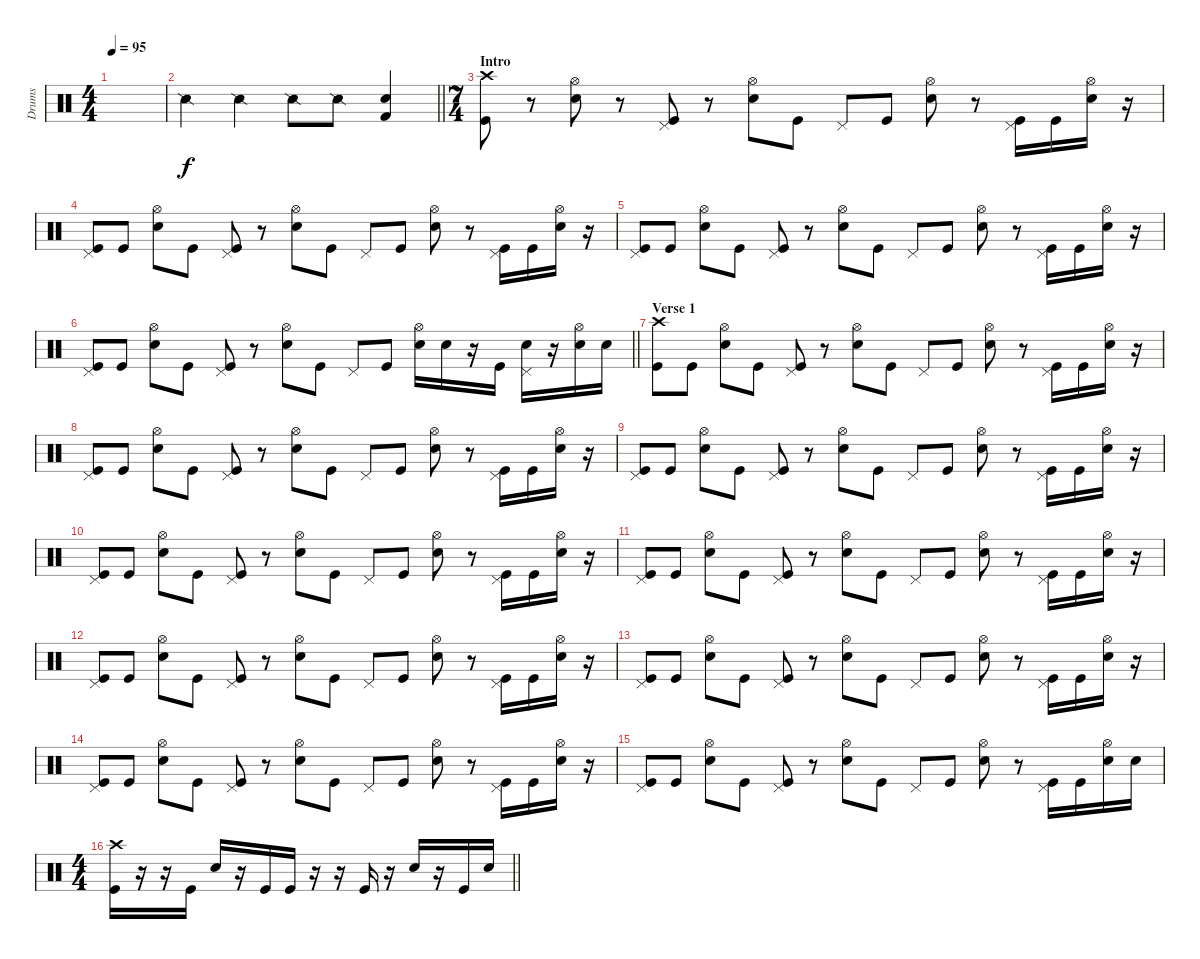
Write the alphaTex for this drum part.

\track ("Drums" "Drums") {instrument percussion}
\staff {score}
\articulation defaults
\ts (4 4)
\tempo 95
\clef neutral
\ks c
|
\barLineRight lightlight "Snare (side stick) 2".4 "Snare (side stick) 2".4 "Snare (side stick) 2".8 "Snare (side stick) 2".8
("Electric Snare (hit)" "Kick (hit) 2").4 |
\ts (7 4)
\section ("" "Intro")
("Crash high (hit)" "Kick (hit)").8 r.8 ("Hi-Hat (open)" "Electric Snare (hit)").8 r.8 ("Pedal Hi-Hat (hit)" "Kick (hit)").8 r.8 ("Hi-Hat (open)" "Electric Snare (hit)").8 "Kick (hit)".8 "Pedal Hi-Hat (hit)".8 "Kick (hit)".8 ("Hi-Hat (open)" "Electric Snare (hit)").8 r.8 ("Pedal Hi-Hat (hit)" "Kick (hit)").16 "Kick (hit)".16 ("Hi-Hat (open)" "Electric Snare (hit)").16 r.16 |
("Pedal Hi-Hat (hit)" "Kick (hit)").8 "Kick (hit)".8 ("Hi-Hat (open)" "Electric Snare (hit)").8 "Kick (hit)".8 ("Pedal Hi-Hat (hit)" "Kick (hit)").8 r.8 ("Hi-Hat (open)" "Electric Snare (hit)").8 "Kick (hit)".8 "Pedal Hi-Hat (hit)".8 "Kick (hit)".8 ("Hi-Hat (open)" "Electric Snare (hit)").8 r.8 ("Pedal Hi-Hat (hit)" "Kick (hit)").16 "Kick (hit)".16 ("Hi-Hat (open)" "Electric Snare (hit)").16 r.16 |
("Pedal Hi-Hat (hit)" "Kick (hit)").8 "Kick (hit)".8 ("Hi-Hat (open)" "Electric Snare (hit)").8 "Kick (hit)".8 ("Pedal Hi-Hat (hit)" "Kick (hit)").8 r.8 ("Hi-Hat (open)" "Electric Snare (hit)").8 "Kick (hit)".8 "Pedal Hi-Hat (hit)".8 "Kick (hit)".8 ("Hi-Hat (open)" "Electric Snare (hit)").8 r.8 ("Pedal Hi-Hat (hit)" "Kick (hit)").16 "Kick (hit)".16 ("Hi-Hat (open)" "Electric Snare (hit)").16 r.16 |
\barLineRight lightlight
("Pedal Hi-Hat (hit)" "Kick (hit)").8 "Kick (hit)".8 ("Hi-Hat (open)" "Electric Snare (hit)").8 "Kick (hit)".8 ("Pedal Hi-Hat (hit)" "Kick (hit)").8 r.8 ("Hi-Hat (open)" "Electric Snare (hit)").8 "Kick (hit)".8 "Pedal Hi-Hat (hit)".8 "Kick (hit)".8 ("Hi-Hat (open)" "Electric Snare (hit)").16 "Electric Snare (hit)".16 r.16 "Kick (hit)".16 ("Pedal Hi-Hat (hit)" "Electric Snare (hit)").16 r.16 ("Hi-Hat (open)" "Electric Snare (hit)").16 "Electric Snare (hit)".16 |
\section ("" "Verse 1")
("Crash high (hit)" "Kick (hit)").8 "Kick (hit)".8 ("Hi-Hat (open)" "Electric Snare (hit)").8 "Kick (hit)".8 ("Pedal Hi-Hat (hit)" "Kick (hit)").8 r.8 ("Hi-Hat (open)" "Electric Snare (hit)").8 "Kick (hit)".8 "Pedal Hi-Hat (hit)".8 "Kick (hit)".8 ("Hi-Hat (open)" "Electric Snare (hit)").8 r.8 ("Pedal Hi-Hat (hit)" "Kick (hit)").16 "Kick (hit)".16 ("Hi-Hat (open)" "Electric Snare (hit)").16 r.16 |
("Pedal Hi-Hat (hit)" "Kick (hit)").8 "Kick (hit)".8 ("Hi-Hat (open)" "Electric Snare (hit)").8 "Kick (hit)".8 ("Pedal Hi-Hat (hit)" "Kick (hit)").8 r.8 ("Hi-Hat (open)" "Electric Snare (hit)").8 "Kick (hit)".8 "Pedal Hi-Hat (hit)".8 "Kick (hit)".8 ("Hi-Hat (open)" "Electric Snare (hit)").8 r.8 ("Pedal Hi-Hat (hit)" "Kick (hit)").16 "Kick (hit)".16 ("Hi-Hat (open)" "Electric Snare (hit)").16 r.16 |
("Pedal Hi-Hat (hit)" "Kick (hit)").8 "Kick (hit)".8 ("Hi-Hat (open)" "Electric Snare (hit)").8 "Kick (hit)".8 ("Pedal Hi-Hat (hit)" "Kick (hit)").8 r.8 ("Hi-Hat (open)" "Electric Snare (hit)").8 "Kick (hit)".8 "Pedal Hi-Hat (hit)".8 "Kick (hit)".8 ("Hi-Hat (open)" "Electric Snare (hit)").8 r.8 ("Pedal Hi-Hat (hit)" "Kick (hit)").16 "Kick (hit)".16 ("Hi-Hat (open)" "Electric Snare (hit)").16 r.16 |
("Pedal Hi-Hat (hit)" "Kick (hit)").8 "Kick (hit)".8 ("Hi-Hat (open)" "Electric Snare (hit)").8 "Kick (hit)".8 ("Pedal Hi-Hat (hit)" "Kick (hit)").8 r.8 ("Hi-Hat (open)" "Electric Snare (hit)").8 "Kick (hit)".8 "Pedal Hi-Hat (hit)".8 "Kick (hit)".8 ("Hi-Hat (open)" "Electric Snare (hit)").8 r.8 ("Pedal Hi-Hat (hit)" "Kick (hit)").16 "Kick (hit)".16 ("Hi-Hat (open)" "Electric Snare (hit)").16 r.16 |
("Pedal Hi-Hat (hit)" "Kick (hit)").8 "Kick (hit)".8 ("Hi-Hat (open)" "Electric Snare (hit)").8 "Kick (hit)".8 ("Pedal Hi-Hat (hit)" "Kick (hit)").8 r.8 ("Hi-Hat (open)" "Electric Snare (hit)").8 "Kick (hit)".8 "Pedal Hi-Hat (hit)".8 "Kick (hit)".8 ("Hi-Hat (open)" "Electric Snare (hit)").8 r.8 ("Pedal Hi-Hat (hit)" "Kick (hit)").16 "Kick (hit)".16 ("Hi-Hat (open)" "Electric Snare (hit)").16 r.16 |
("Pedal Hi-Hat (hit)" "Kick (hit)").8 "Kick (hit)".8 ("Hi-Hat (open)" "Electric Snare (hit)").8 "Kick (hit)".8 ("Pedal Hi-Hat (hit)" "Kick (hit)").8 r.8 ("Hi-Hat (open)" "Electric Snare (hit)").8 "Kick (hit)".8 "Pedal Hi-Hat (hit)".8 "Kick (hit)".8 ("Hi-Hat (open)" "Electric Snare (hit)").8 r.8 ("Pedal Hi-Hat (hit)" "Kick (hit)").16 "Kick (hit)".16 ("Hi-Hat (open)" "Electric Snare (hit)").16 r.16 |
("Pedal Hi-Hat (hit)" "Kick (hit)").8 "Kick (hit)".8 ("Hi-Hat (open)" "Electric Snare (hit)").8 "Kick (hit)".8 ("Pedal Hi-Hat (hit)" "Kick (hit)").8 r.8 ("Hi-Hat (open)" "Electric Snare (hit)").8 "Kick (hit)".8 "Pedal Hi-Hat (hit)".8 "Kick (hit)".8 ("Hi-Hat (open)" "Electric Snare (hit)").8 r.8 ("Pedal Hi-Hat (hit)" "Kick (hit)").16 "Kick (hit)".16 ("Hi-Hat (open)" "Electric Snare (hit)").16 r.16 |
("Pedal Hi-Hat (hit)" "Kick (hit)").8 "Kick (hit)".8 ("Hi-Hat (open)" "Electric Snare (hit)").8 "Kick (hit)".8 ("Pedal Hi-Hat (hit)" "Kick (hit)").8 r.8 ("Hi-Hat (open)" "Electric Snare (hit)").8 "Kick (hit)".8 "Pedal Hi-Hat (hit)".8 "Kick (hit)".8 ("Hi-Hat (open)" "Electric Snare (hit)").8 r.8 ("Pedal Hi-Hat (hit)" "Kick (hit)").16 "Kick (hit)".16 ("Hi-Hat (open)" "Electric Snare (hit)").16 r.16 |
("Pedal Hi-Hat (hit)" "Kick (hit)").8 "Kick (hit)".8 ("Hi-Hat (open)" "Electric Snare (hit)").8 "Kick (hit)".8 ("Pedal Hi-Hat (hit)" "Kick (hit)").8 r.8 ("Hi-Hat (open)" "Electric Snare (hit)").8 "Kick (hit)".8 "Pedal Hi-Hat (hit)".8 "Kick (hit)".8 ("Hi-Hat (open)" "Electric Snare (hit)").8 r.8 ("Pedal Hi-Hat (hit)" "Kick (hit)").16 "Kick (hit)".16 ("Hi-Hat (open)" "Electric Snare (hit)").16 "Electric Snare (hit)".16 |
\ts (4 4)
\barLineRight lightlight
("Crash high (hit)" "Kick (hit)").16 r.16 r.16 "Kick (hit)".16 "Electric Snare (hit)".16 r.16 "Kick (hit)".16 "Kick (hit)".16 r.16 r.16 "Kick (hit)".16 r.16 "Electric Snare (hit)".16 r.16 "Kick (hit)".16 "Electric Snare (hit)".16
